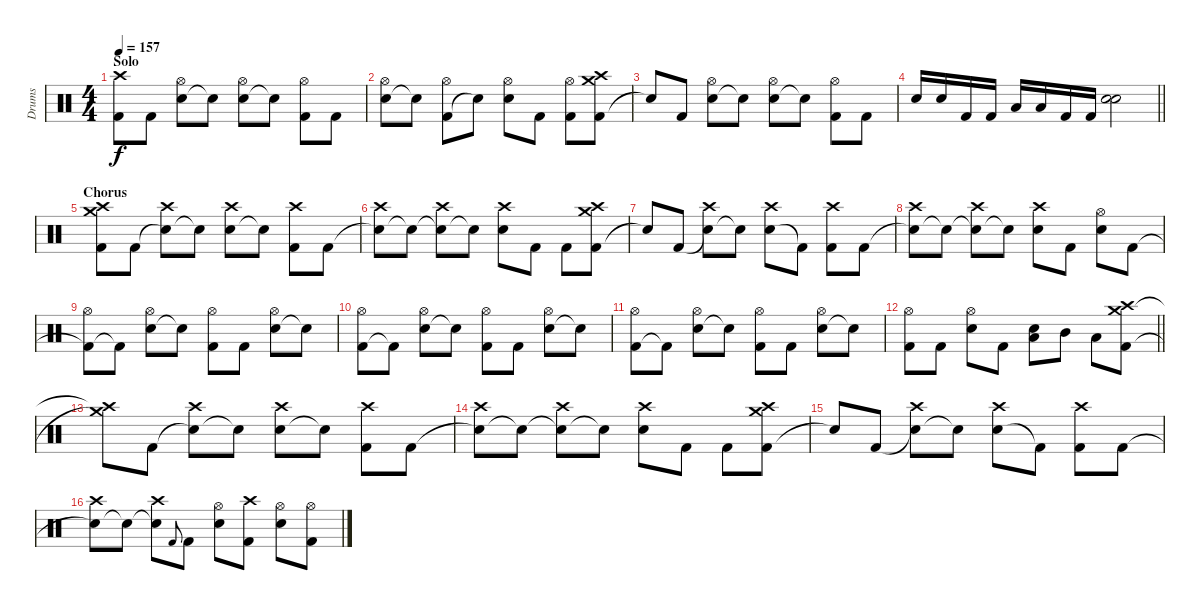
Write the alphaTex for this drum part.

\track ("Drums" "Drums") {instrument percussion}
\staff {score}
\articulation defaults
\ts (4 4)
\section ("" "Solo")
\tempo 157
\clef neutral
\ks c
("Kick (hit) 2" "Crash high (hit)").8{dy f} "Kick (hit) 2".8 ("Electric Snare (hit)" "Hi-Hat (open)").8 "Snare (hit)"{t}.8 ("Electric Snare (hit)" "Hi-Hat (open)").8 "Snare (hit)"{t}.8 ("Kick (hit) 2" "Hi-Hat (open)").8 "Kick (hit) 2".8 |
("Electric Snare (hit)" "Hi-Hat (open)").8 "Snare (hit)"{t}.8 ("Kick (hit) 2" "Hi-Hat (open)").8 "Snare (hit)"{t}.8 ("Electric Snare (hit)" "Hi-Hat (open)").8 "Kick (hit) 2".8 ("Kick (hit) 2" "Hi-Hat (open)").8 ("Kick (hit) 2" "Crash medium (hit)" "Crash high (hit)").8 |
"Snare (hit)"{t}.8 "Kick (hit) 2".8 ("Electric Snare (hit)" "Hi-Hat (open)").8 "Snare (hit)"{t}.8 ("Electric Snare (hit)" "Hi-Hat (open)").8 "Snare (hit)"{t}.8 ("Kick (hit) 2" "Hi-Hat (open)").8 "Kick (hit) 2".8 |
\barLineRight lightlight "Electric Snare (hit)".16 "Electric Snare (hit)".16 "Kick (hit) 2".16 "Kick (hit) 2".16 "Low Tom (hit)".16 "Low Tom (hit)".16 "Kick (hit) 2".16 "Kick (hit) 2".16
("Electric Snare (hit)" "Electric Snare (hit)").2 |
\section ("" "Chorus")
("Kick (hit) 2" "Crash medium (hit)" "Crash high (hit)").8 "Kick (hit) 2".8 ("Snare (hit)"{t} "Crash high (hit)").8 "Snare (hit)"{t}.8 ("Electric Snare (hit)" "Crash high (hit)").8 "Snare (hit)"{t}.8 ("Kick (hit) 2" "Crash high (hit)").8 "Kick (hit) 2".8 |
("Snare (hit)"{t} "Crash high (hit)").8 "Snare (hit)"{t}.8 ("Snare (hit)"{t} "Crash high (hit)").8 "Electric Snare (hit)"{t}.8 ("Electric Snare (hit)" "Crash high (hit)").8 "Kick (hit) 2".8 "Kick (hit) 2".8 ("Kick (hit) 2" "Crash medium (hit)" "Crash high (hit)").8 |
"Snare (hit)"{t}.8 "Kick (hit) 2".8 ("Snare (hit)"{t} "Crash high (hit)").8 "Electric Snare (hit)"{t}.8 ("Electric Snare (hit)" "Crash high (hit)").8 "Kick (hit) 2"{t}.8 ("Kick (hit) 2" "Crash high (hit)").8 "Kick (hit) 2".8 |
("Electric Snare (hit)"{t} "Crash high (hit)").8 "Snare (hit)"{t}.8 ("Snare (hit)"{t} "Crash high (hit)").8 "Snare (hit)"{t}.8 ("Electric Snare (hit)" "Crash high (hit)").8 "Kick (hit) 2".8 ("Electric Snare (hit)" "Hi-Hat (open)").8 "Kick (hit) 2".8 |
("Kick (hit) 2"{t} "Hi-Hat (open)").8 "Kick (hit) 2"{t}.8 ("Electric Snare (hit)" "Hi-Hat (open)").8 "Snare (hit)"{t}.8 ("Kick (hit) 2" "Hi-Hat (open)").8 "Kick (hit) 2".8 ("Electric Snare (hit)" "Hi-Hat (open)").8 "Snare (hit)"{t}.8 |
("Kick (hit) 2" "Hi-Hat (open)").8 "Kick (hit) 2"{t}.8 ("Electric Snare (hit)" "Hi-Hat (open)").8 "Snare (hit)"{t}.8 ("Kick (hit) 2" "Hi-Hat (open)").8 "Kick (hit) 2".8 ("Electric Snare (hit)" "Hi-Hat (open)").8 "Snare (hit)"{t}.8 |
("Kick (hit) 2" "Hi-Hat (open)").8 "Kick (hit) 2"{t}.8 ("Electric Snare (hit)" "Hi-Hat (open)").8 "Snare (hit)"{t}.8 ("Kick (hit) 2" "Hi-Hat (open)").8 "Kick (hit) 2".8 ("Electric Snare (hit)" "Hi-Hat (open)").8 "Snare (hit)"{t}.8 |
\barLineRight lightlight
("Kick (hit) 2" "Hi-Hat (open)").8 "Kick (hit) 2".8 ("Electric Snare (hit)" "Hi-Hat (open)").8 "Kick (hit) 2".8 ("Electric Snare (hit)" "Low Floor Tom (hit)").8 "Mid Tom (hit)".8 "Low Tom (hit)".8 ("Kick (hit) 2" "Crash medium (hit)" "Crash high (hit)").8 |
("Crash medium (hit)"{t} "Crash high (hit)"{t}).8 "Kick (hit) 2".8 ("Snare (hit)"{t} "Crash high (hit)").8 "Snare (hit)"{t}.8 ("Electric Snare (hit)" "Crash high (hit)").8 "Snare (hit)"{t}.8 ("Kick (hit) 2" "Crash high (hit)").8 "Kick (hit) 2".8 |
("Snare (hit)"{t} "Crash high (hit)").8 "Snare (hit)"{t}.8 ("Snare (hit)"{t} "Crash high (hit)").8 "Electric Snare (hit)"{t}.8 ("Electric Snare (hit)" "Crash high (hit)").8 "Kick (hit) 2".8 "Kick (hit) 2".8 ("Kick (hit) 2" "Crash medium (hit)" "Crash high (hit)").8 |
"Snare (hit)"{t}.8 "Kick (hit) 2".8 ("Snare (hit)"{t} "Crash high (hit)").8 "Electric Snare (hit)"{t}.8 ("Electric Snare (hit)" "Crash high (hit)").8 "Kick (hit) 2"{t}.8 ("Kick (hit) 2" "Crash high (hit)").8 "Kick (hit) 2".8 |
("Electric Snare (hit)"{t} "Crash high (hit)").8 "Snare (hit)"{t}.8 ("Snare (hit)"{t} "Crash high (hit)").8 "Kick (hit) 2".8{gr onbeat} "Kick (hit) 2".8 ("Electric Snare (hit)" "Hi-Hat (open)").8 ("Kick (hit) 2" "Crash high (hit)").8 ("Electric Snare (hit)" "Hi-Hat (open)").8 ("Kick (hit) 2" "Hi-Hat (open)").8
